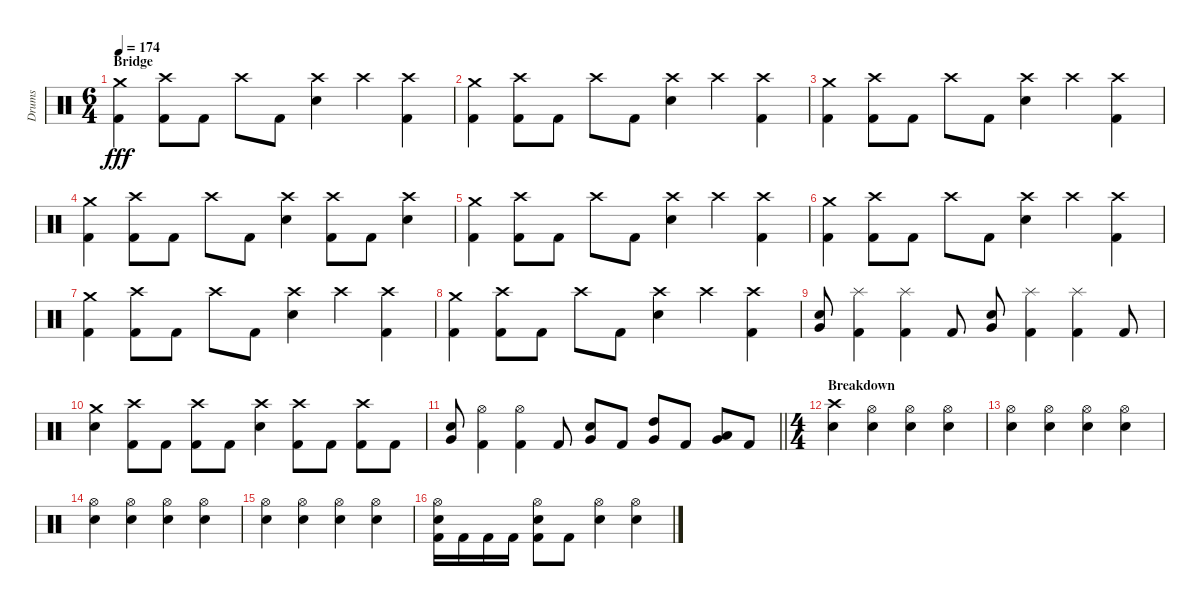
\track ("Drums" "Drums") {instrument percussion}
\staff {score}
\articulation defaults
\ts (6 4)
\section ("" "Bridge")
\tempo 174
\clef neutral
\ks c
("Crash medium (hit)" "Kick (hit) 2").4{dy fff} ("Crash high (hit)" "Kick (hit) 2").8 "Kick (hit) 2".8 "Crash high (hit)".8 "Kick (hit) 2".8 ("Crash high (hit)" "Snare (hit) 2").4 "Crash high (hit)".4 ("Crash high (hit)" "Kick (hit) 2").4 |
("Crash medium (hit)" "Kick (hit) 2").4 ("Crash high (hit)" "Kick (hit) 2").8 "Kick (hit) 2".8 "Crash high (hit)".8 "Kick (hit) 2".8 ("Crash high (hit)" "Snare (hit) 2").4 "Crash high (hit)".4 ("Crash high (hit)" "Kick (hit) 2").4 |
("Crash medium (hit)" "Kick (hit) 2").4 ("Crash high (hit)" "Kick (hit) 2").8 "Kick (hit) 2".8 "Crash high (hit)".8 "Kick (hit) 2".8 ("Crash high (hit)" "Snare (hit) 2").4 "Crash high (hit)".4 ("Crash high (hit)" "Kick (hit) 2").4 |
("Crash medium (hit)" "Kick (hit) 2").4 ("Crash high (hit)" "Kick (hit) 2").8 "Kick (hit) 2".8 "Crash high (hit)".8 "Kick (hit) 2".8 ("Crash high (hit)" "Snare (hit) 2").4 ("Crash high (hit)" "Kick (hit) 2").8 "Kick (hit) 2".8 ("Crash high (hit)" "Snare (hit) 2").4 |
("Crash medium (hit)" "Kick (hit) 2").4 ("Crash high (hit)" "Kick (hit) 2").8 "Kick (hit) 2".8 "Crash high (hit)".8 "Kick (hit) 2".8 ("Crash high (hit)" "Snare (hit) 2").4 "Crash high (hit)".4 ("Crash high (hit)" "Kick (hit) 2").4 |
("Crash medium (hit)" "Kick (hit) 2").4 ("Crash high (hit)" "Kick (hit) 2").8 "Kick (hit) 2".8 "Crash high (hit)".8 "Kick (hit) 2".8 ("Crash high (hit)" "Snare (hit) 2").4 "Crash high (hit)".4 ("Crash high (hit)" "Kick (hit) 2").4 |
("Crash medium (hit)" "Kick (hit) 2").4 ("Crash high (hit)" "Kick (hit) 2").8 "Kick (hit) 2".8 "Crash high (hit)".8 "Kick (hit) 2".8 ("Crash high (hit)" "Snare (hit) 2").4 "Crash high (hit)".4 ("Crash high (hit)" "Kick (hit) 2").4 |
("Crash medium (hit)" "Kick (hit) 2").4 ("Crash high (hit)" "Kick (hit) 2").8 "Kick (hit) 2".8 "Crash high (hit)".8 "Kick (hit) 2".8 ("Crash high (hit)" "Snare (hit) 2").4 "Crash high (hit)".4 ("Crash high (hit)" "Kick (hit) 2").4 |
("Snare (hit) 2" "Very Low Tom (hit)").8 ("Splash (hit)" "Kick (hit) 2").4 ("Splash (hit)" "Kick (hit) 2").4 "Kick (hit) 2".8 ("Snare (hit) 2" "Very Low Tom (hit)").8 ("Splash (hit)" "Kick (hit) 2").4 ("Splash (hit)" "Kick (hit) 2").4 "Kick (hit) 2".8 |
("Crash medium (hit)" "Snare (hit) 2").4 ("Crash high (hit)" "Kick (hit) 2").8 "Kick (hit) 2".8 ("Crash high (hit)" "Kick (hit) 2").8 "Kick (hit) 2".8 ("Crash high (hit)" "Snare (hit) 2").4 ("Crash high (hit)" "Kick (hit) 2").8 "Kick (hit) 2".8 ("Crash high (hit)" "Kick (hit) 2").8 "Kick (hit) 2".8 |
\barLineRight lightlight
("Snare (hit) 2" "Very Low Tom (hit)").8 ("Hi-Hat (open)" "Kick (hit) 2").4 ("Hi-Hat (open)" "Kick (hit) 2").4 "Kick (hit) 2".8 ("Snare (hit) 2" "Very Low Tom (hit)").8 "Kick (hit) 2".8 ("High Tom (hit)" "Very Low Tom (hit)").8 "Kick (hit) 2".8 ("Low Tom (hit)" "Very Low Tom (hit)").8 "Kick (hit) 2".8 |
\ts (4 4)
\section ("" "Breakdown")
("Crash high (hit)" "Snare (hit) 2").4 ("Hi-Hat (open)" "Snare (hit) 2").4 ("Hi-Hat (open)" "Snare (hit) 2").4 ("Hi-Hat (open)" "Snare (hit) 2").4 |
("Hi-Hat (open)" "Snare (hit) 2").4 ("Hi-Hat (open)" "Snare (hit) 2").4 ("Hi-Hat (open)" "Snare (hit) 2").4 ("Hi-Hat (open)" "Snare (hit) 2").4 |
("Hi-Hat (open)" "Snare (hit) 2").4 ("Hi-Hat (open)" "Snare (hit) 2").4 ("Hi-Hat (open)" "Snare (hit) 2").4 ("Hi-Hat (open)" "Snare (hit) 2").4 |
("Hi-Hat (open)" "Snare (hit) 2").4 ("Hi-Hat (open)" "Snare (hit) 2").4 ("Hi-Hat (open)" "Snare (hit) 2").4 ("Hi-Hat (open)" "Snare (hit) 2").4 |
("Hi-Hat (open)" "Snare (hit) 2" "Kick (hit) 2").16 "Kick (hit) 2".16 "Kick (hit) 2".16 "Kick (hit) 2".16 ("Hi-Hat (open)" "Snare (hit) 2" "Kick (hit) 2").8 "Kick (hit) 2".8 ("Hi-Hat (open)" "Snare (hit) 2").4 ("Hi-Hat (open)" "Snare (hit) 2").4
